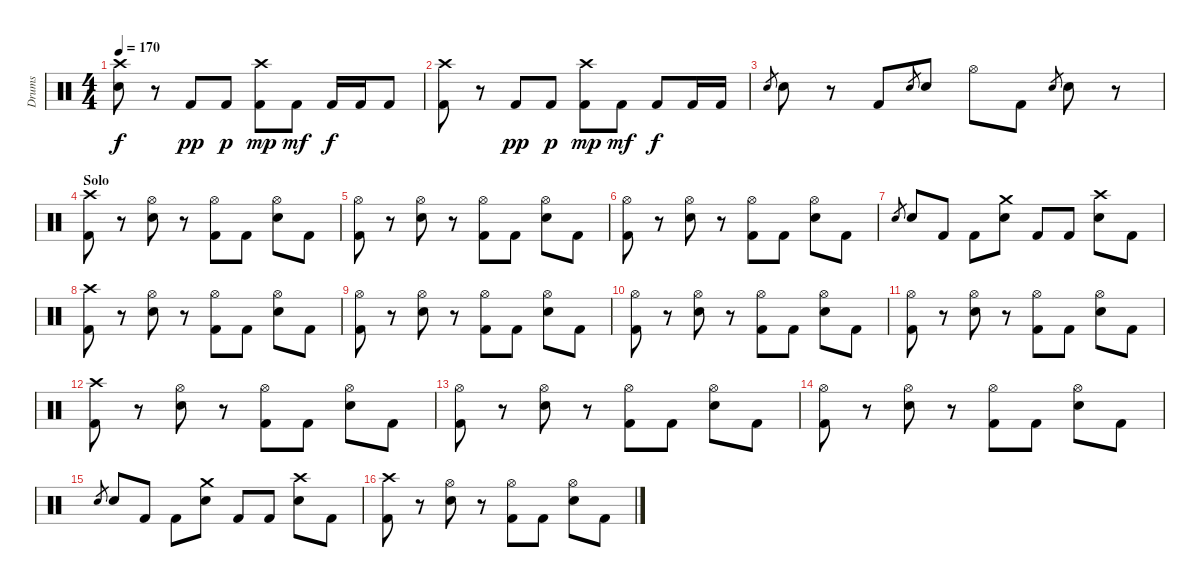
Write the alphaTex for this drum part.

\track ("Drums" "Drums") {instrument percussion}
\staff {score}
\articulation defaults
\ts (4 4)
\tempo 170
\clef neutral
\ks c
("Crash high (hit)" "Electric Snare (hit)").8{dy f} r.8 "Kick (hit) 2".8{dy pp} "Kick (hit) 2".8{dy p} ("Crash high (hit)" "Kick (hit) 2").8{dy mp} "Kick (hit) 2".8{dy mf} "Kick (hit) 2".16{dy f} "Kick (hit) 2".16 "Kick (hit) 2".8 |
("Crash high (hit)" "Kick (hit) 2").8 r.8 "Kick (hit) 2".8{dy pp} "Kick (hit) 2".8{dy p} ("Crash high (hit)" "Kick (hit) 2").8{dy mp} "Kick (hit) 2".8{dy mf} "Kick (hit) 2".8{dy f} "Kick (hit) 2".16 "Kick (hit) 2".16 |
"Electric Snare (hit)".8{gr} "Electric Snare (hit)".8 r.8 "Kick (hit) 2".8 "Electric Snare (hit)".8{gr} "Electric Snare (hit)".8 "Hi-Hat (open)".8 "Kick (hit) 2".8 "Electric Snare (hit)".8{gr} "Electric Snare (hit)".8 r.8 |
\section ("" "Solo")
("Crash high (hit)" "Kick (hit) 2").8 r.8 ("Hi-Hat (open)" "Electric Snare (hit)").8 r.8 ("Hi-Hat (open)" "Kick (hit) 2").8 "Kick (hit) 2".8 ("Hi-Hat (open)" "Electric Snare (hit)").8 "Kick (hit) 2".8 |
("Hi-Hat (open)" "Kick (hit) 2").8 r.8 ("Hi-Hat (open)" "Electric Snare (hit)").8 r.8 ("Hi-Hat (open)" "Kick (hit) 2").8 "Kick (hit) 2".8 ("Hi-Hat (open)" "Electric Snare (hit)").8 "Kick (hit) 2".8 |
("Hi-Hat (open)" "Kick (hit) 2").8 r.8 ("Hi-Hat (open)" "Electric Snare (hit)").8 r.8 ("Hi-Hat (open)" "Kick (hit) 2").8 "Kick (hit) 2".8 ("Hi-Hat (open)" "Electric Snare (hit)").8 "Kick (hit) 2".8 |
"Electric Snare (hit)".8{gr} "Electric Snare (hit)".8 "Kick (hit) 2".8 "Kick (hit) 2".8 ("Crash medium (hit)" "Electric Snare (hit)").8 "Kick (hit) 2".8 "Kick (hit) 2".8 ("Crash high (hit)" "Electric Snare (hit)").8 "Kick (hit) 2".8 |
("Crash high (hit)" "Kick (hit) 2").8 r.8 ("Hi-Hat (open)" "Electric Snare (hit)").8 r.8 ("Hi-Hat (open)" "Kick (hit) 2").8 "Kick (hit) 2".8 ("Hi-Hat (open)" "Electric Snare (hit)").8 "Kick (hit) 2".8 |
("Hi-Hat (open)" "Kick (hit) 2").8 r.8 ("Hi-Hat (open)" "Electric Snare (hit)").8 r.8 ("Hi-Hat (open)" "Kick (hit) 2").8 "Kick (hit) 2".8 ("Hi-Hat (open)" "Electric Snare (hit)").8 "Kick (hit) 2".8 |
("Hi-Hat (open)" "Kick (hit) 2").8 r.8 ("Hi-Hat (open)" "Electric Snare (hit)").8 r.8 ("Hi-Hat (open)" "Kick (hit) 2").8 "Kick (hit) 2".8 ("Hi-Hat (open)" "Electric Snare (hit)").8 "Kick (hit) 2".8 |
("Hi-Hat (open)" "Kick (hit) 2").8 r.8 ("Hi-Hat (open)" "Electric Snare (hit)").8 r.8 ("Hi-Hat (open)" "Kick (hit) 2").8 "Kick (hit) 2".8 ("Hi-Hat (open)" "Electric Snare (hit)").8 "Kick (hit) 2".8 |
("Crash high (hit)" "Kick (hit) 2").8 r.8 ("Hi-Hat (open)" "Electric Snare (hit)").8 r.8 ("Hi-Hat (open)" "Kick (hit) 2").8 "Kick (hit) 2".8 ("Hi-Hat (open)" "Electric Snare (hit)").8 "Kick (hit) 2".8 |
("Hi-Hat (open)" "Kick (hit) 2").8 r.8 ("Hi-Hat (open)" "Electric Snare (hit)").8 r.8 ("Hi-Hat (open)" "Kick (hit) 2").8 "Kick (hit) 2".8 ("Hi-Hat (open)" "Electric Snare (hit)").8 "Kick (hit) 2".8 |
("Hi-Hat (open)" "Kick (hit) 2").8 r.8 ("Hi-Hat (open)" "Electric Snare (hit)").8 r.8 ("Hi-Hat (open)" "Kick (hit) 2").8 "Kick (hit) 2".8 ("Hi-Hat (open)" "Electric Snare (hit)").8 "Kick (hit) 2".8 |
"Electric Snare (hit)".8{gr} "Electric Snare (hit)".8 "Kick (hit) 2".8 "Kick (hit) 2".8 ("Crash medium (hit)" "Electric Snare (hit)").8 "Kick (hit) 2".8 "Kick (hit) 2".8 ("Crash high (hit)" "Electric Snare (hit)").8 "Kick (hit) 2".8 |
("Crash high (hit)" "Kick (hit) 2").8 r.8 ("Hi-Hat (open)" "Electric Snare (hit)").8 r.8 ("Hi-Hat (open)" "Kick (hit) 2").8 "Kick (hit) 2".8 ("Hi-Hat (open)" "Electric Snare (hit)").8 "Kick (hit) 2".8
